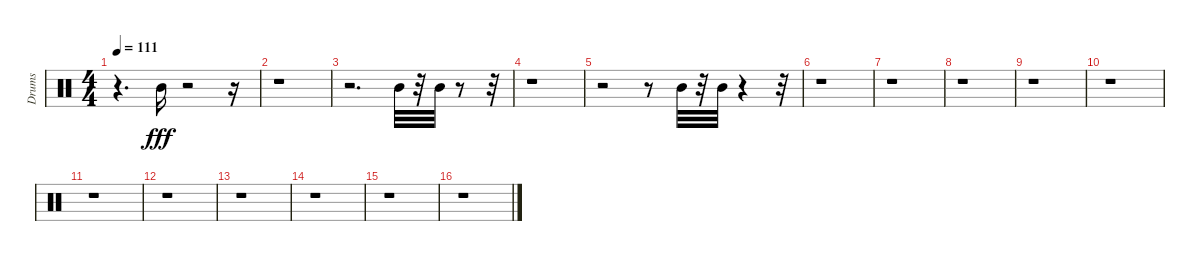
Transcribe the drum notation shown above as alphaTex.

\track ("Drums" "Drums") {instrument percussion}
\staff {score}
\articulation defaults
\ts (4 4)
\tempo 111
\clef neutral
\ks c
r.4{d dy fff} "Mid Tom (hit)".16 r.2 r.16 |
r.1 |
r.2{d} "Mid Tom (hit)".32 r.32 "Mid Tom (hit)".32 r.8 r.32 |
r.1 |
r.2 r.8 "Mid Tom (hit)".32 r.32 "Mid Tom (hit)".32 r.4 r.32 |
r.1 |
r.1 |
r.1 |
r.1 |
r.1 |
r.1 |
r.1 |
r.1 |
r.1 |
r.1 |
r.1
